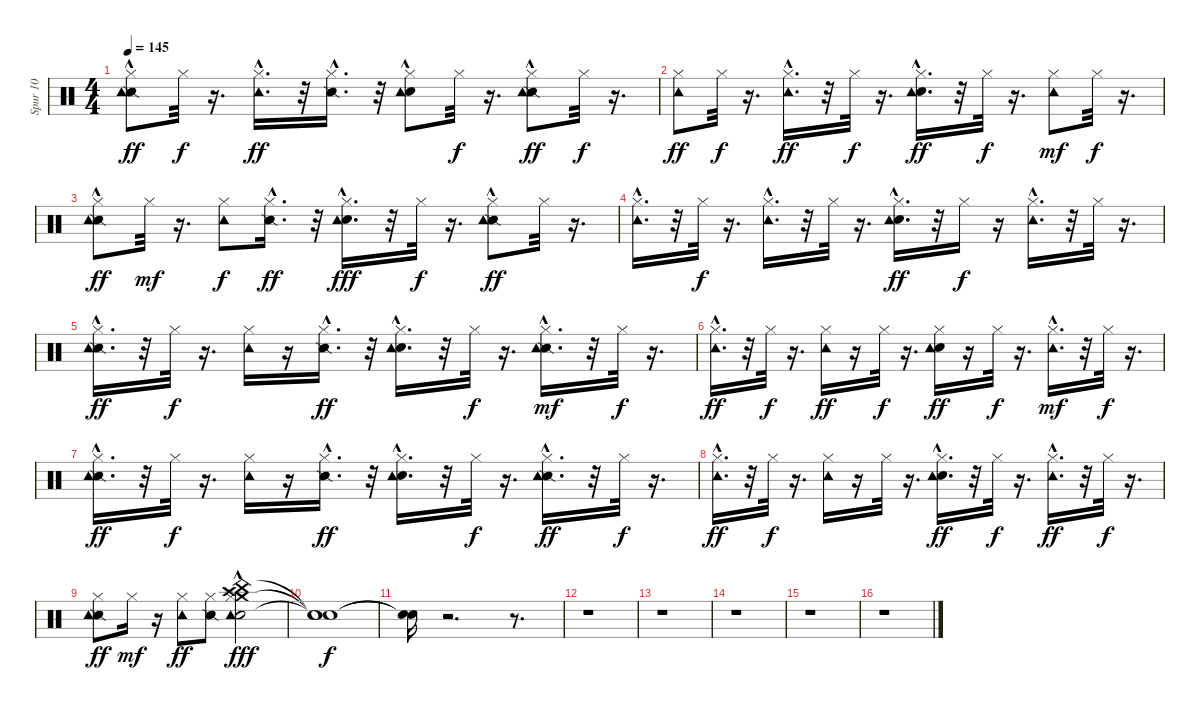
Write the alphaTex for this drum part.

\track ("Spur 10" "Spur 10") {instrument percussion}
\staff {score}
\articulation defaults
\ts (4 4)
\tempo 145
\clef neutral
\ks c
("Snare (side stick) 2"{hac} "Tambourine (hit)" "Hi-Hat (closed)").8{dy ff} "Hi-Hat (closed)".32{dy f} r.16{d} ("Tambourine (hit)"{hac} "Hi-Hat (closed)").16{d dy ff} r.32 ("Snare (side stick) 2"{hac} "Hi-Hat (closed)").16{d} r.32 ("Electric Snare (hit)"{hac} "Tambourine (hit)" "Hi-Hat (closed)").8 "Hi-Hat (closed)".32{dy f} r.16{d} ("Snare (side stick) 2"{hac} "Tambourine (hit)" "Hi-Hat (closed)").8{dy ff} "Hi-Hat (closed)".32{dy f} r.16{d} |
("Tambourine (hit)" "Hi-Hat (closed)").8{dy ff} "Hi-Hat (closed)".32{dy f} r.16{d} ("Tambourine (hit)"{hac} "Hi-Hat (closed)").16{d dy ff} r.32 "Hi-Hat (closed)".32{dy f} r.16{d} ("Electric Snare (hit)"{hac} "Tambourine (hit)"{hac} "Hi-Hat (closed)").16{d dy ff} r.32 "Hi-Hat (closed)".32{dy f} r.16{d} ("Tambourine (hit)" "Hi-Hat (closed)").8{dy mf} "Hi-Hat (closed)".32{dy f} r.16{d} |
("Snare (side stick) 2"{hac} "Tambourine (hit)" "Hi-Hat (closed)").8{dy ff} "Hi-Hat (closed)".32{dy mf} r.16{d} ("Tambourine (hit)" "Hi-Hat (closed)").8{dy f} ("Snare (side stick) 2"{hac} "Hi-Hat (closed)").16{d dy ff} r.32 ("Electric Snare (hit)"{hac} "Tambourine (hit)"{hac} "Hi-Hat (closed)").16{d dy fff} r.32 "Hi-Hat (closed)".32{dy f} r.16{d} ("Snare (side stick) 2"{hac} "Tambourine (hit)" "Hi-Hat (closed)").8{dy ff} "Hi-Hat (closed)".32 r.16{d} |
("Tambourine (hit)"{hac} "Hi-Hat (closed)").16{d} r.32 "Hi-Hat (closed)".32{dy f} r.16{d} ("Tambourine (hit)"{hac} "Hi-Hat (closed)").16{d} r.32 "Hi-Hat (closed)".32 r.16{d} ("Electric Snare (hit)" "Tambourine (hit)"{hac} "Hi-Hat (closed)").16{d dy ff} r.32 "Hi-Hat (closed)".16{dy f} r.16 ("Tambourine (hit)"{hac} "Hi-Hat (closed)").16{d} r.32 "Hi-Hat (closed)".32 r.16{d} |
("Snare (side stick) 2"{hac} "Tambourine (hit)"{hac} "Hi-Hat (closed)").16{d dy ff} r.32 "Hi-Hat (closed)".32{dy f} r.16{d} ("Tambourine (hit)" "Hi-Hat (closed)").16 r.16 ("Snare (side stick) 2"{hac} "Hi-Hat (closed)").16{d dy ff} r.32 ("Electric Snare (hit)"{hac} "Tambourine (hit)"{hac} "Hi-Hat (closed)").16{d} r.32 "Hi-Hat (closed)".32{dy f} r.16{d} ("Snare (side stick) 2"{hac} "Tambourine (hit)"{hac} "Hi-Hat (closed)").16{d dy mf} r.32 "Hi-Hat (closed)".32{dy f} r.16{d} |
("Tambourine (hit)"{hac} "Hi-Hat (closed)").16{d dy ff} r.32 "Hi-Hat (closed)".32{dy f} r.16{d} ("Tambourine (hit)" "Hi-Hat (closed)").16{dy ff} r.16 "Hi-Hat (closed)".32{dy f} r.16{d} ("Electric Snare (hit)" "Tambourine (hit)" "Hi-Hat (closed)").16{dy ff} r.16 "Hi-Hat (closed)".32{dy f} r.16{d} ("Tambourine (hit)"{hac} "Hi-Hat (closed)").16{d dy mf} r.32 "Hi-Hat (closed)".32{dy f} r.16{d} |
("Snare (side stick) 2"{hac} "Tambourine (hit)"{hac} "Hi-Hat (closed)").16{d dy ff} r.32 "Hi-Hat (closed)".32{dy f} r.16{d} ("Tambourine (hit)" "Hi-Hat (closed)").16 r.16 ("Snare (side stick) 2"{hac} "Hi-Hat (closed)").16{d dy ff} r.32 ("Electric Snare (hit)"{hac} "Tambourine (hit)" "Hi-Hat (closed)").16{d} r.32 "Hi-Hat (closed)".32{dy f} r.16{d} ("Snare (side stick) 2" "Tambourine (hit)"{hac} "Hi-Hat (closed)").16{d dy ff} r.32 "Hi-Hat (closed)".32{dy f} r.16{d} |
("Tambourine (hit)"{hac} "Hi-Hat (closed)").16{d dy ff} r.32 "Hi-Hat (closed)".32{dy f} r.16{d} ("Tambourine (hit)" "Hi-Hat (closed)").16 r.16 "Hi-Hat (closed)".32 r.16{d} ("Electric Snare (hit)"{hac} "Tambourine (hit)" "Hi-Hat (closed)").16{d dy ff} r.32 "Hi-Hat (closed)".32{dy f} r.16{d} ("Tambourine (hit)"{hac} "Hi-Hat (closed)").16{d dy ff} r.32 "Hi-Hat (closed)".32{dy f} r.16{d} |
("Snare (side stick) 2" "Tambourine (hit)" "Hi-Hat (closed)").8{dy ff} "Hi-Hat (closed)".16{dy mf} r.16 ("Tambourine (hit)" "Hi-Hat (closed)").8{dy ff} ("Snare (side stick) 2" "Hi-Hat (closed)").8 ("Crash medium (hit)" "China (hit)" "Electric Snare (hit)"{hac} "Tambourine (hit)"{hac} "Hi-Hat (closed)" "Crash high (hit)").2{dy fff} |
("Snare (hit)"{t} "Snare (hit)"{t} "Snare (hit)"{t}).1{dy f} |
("Snare (hit)"{t} "Snare (hit)"{t}).16 r.2{d} r.8{d} |
r.1 |
r.1 |
r.1 |
r.1 |
r.1
